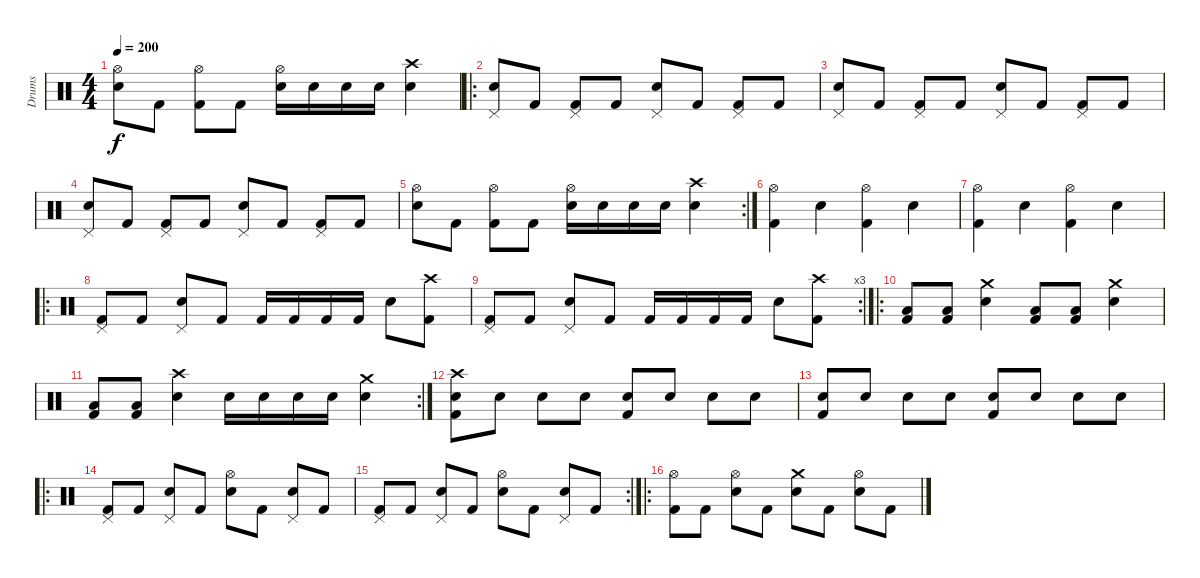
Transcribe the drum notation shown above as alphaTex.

\track ("Drums" "Drums") {instrument percussion}
\staff {score}
\articulation defaults
\ts (4 4)
\tempo 200
\clef neutral
\ks c
("Hi-Hat (open)" "Electric Snare (hit)").8{dy f} "Kick (hit) 2".8 ("Hi-Hat (open)" "Kick (hit) 2").8 "Kick (hit) 2".8 ("Hi-Hat (open)" "Electric Snare (hit)").16 "Electric Snare (hit)".16 "Electric Snare (hit)".16 "Electric Snare (hit)".16 ("Crash high (hit)" "Electric Snare (hit)").4 |
\ro
("Pedal Hi-Hat (hit)" "Electric Snare (hit)").8 "Kick (hit) 2".8 ("Pedal Hi-Hat (hit)" "Kick (hit) 2").8 "Kick (hit) 2".8 ("Pedal Hi-Hat (hit)" "Electric Snare (hit)").8 "Kick (hit) 2".8 ("Pedal Hi-Hat (hit)" "Kick (hit) 2").8 "Kick (hit) 2".8 |
("Pedal Hi-Hat (hit)" "Electric Snare (hit)").8 "Kick (hit) 2".8 ("Pedal Hi-Hat (hit)" "Kick (hit) 2").8 "Kick (hit) 2".8 ("Pedal Hi-Hat (hit)" "Electric Snare (hit)").8 "Kick (hit) 2".8 ("Pedal Hi-Hat (hit)" "Kick (hit) 2").8 "Kick (hit) 2".8 |
("Pedal Hi-Hat (hit)" "Electric Snare (hit)").8 "Kick (hit) 2".8 ("Pedal Hi-Hat (hit)" "Kick (hit) 2").8 "Kick (hit) 2".8 ("Pedal Hi-Hat (hit)" "Electric Snare (hit)").8 "Kick (hit) 2".8 ("Pedal Hi-Hat (hit)" "Kick (hit) 2").8 "Kick (hit) 2".8 |
\rc 2
("Hi-Hat (open)" "Electric Snare (hit)").8 "Kick (hit) 2".8 ("Hi-Hat (open)" "Kick (hit) 2").8 "Kick (hit) 2".8 ("Hi-Hat (open)" "Electric Snare (hit)").16 "Electric Snare (hit)".16 "Electric Snare (hit)".16 "Electric Snare (hit)".16 ("Crash high (hit)" "Electric Snare (hit)").4 |
("Hi-Hat (open)" "Kick (hit) 2").4 "Snare (hit) 2".4 ("Hi-Hat (open)" "Kick (hit) 2").4 "Snare (hit) 2".4 |
("Hi-Hat (open)" "Kick (hit) 2").4 "Snare (hit) 2".4 ("Hi-Hat (open)" "Kick (hit) 2").4 "Snare (hit) 2".4 |
\ro
("Pedal Hi-Hat (hit)" "Kick (hit) 2").8 "Kick (hit) 2".8 ("Pedal Hi-Hat (hit)" "Electric Snare (hit)").8 "Kick (hit) 2".8 "Kick (hit) 2".16 "Kick (hit) 2".16 "Kick (hit) 2".16 "Kick (hit) 2".16 "Electric Snare (hit)".8 ("Crash high (hit)" "Kick (hit) 2").8 |
\rc 3
("Pedal Hi-Hat (hit)" "Kick (hit) 2").8 "Kick (hit) 2".8 ("Pedal Hi-Hat (hit)" "Electric Snare (hit)").8 "Kick (hit) 2".8 "Kick (hit) 2".16 "Kick (hit) 2".16 "Kick (hit) 2".16 "Kick (hit) 2".16 "Electric Snare (hit)".8 ("Crash high (hit)" "Kick (hit) 2").8 |
\ro
("Low Tom (hit)" "Kick (hit) 2").8 ("Low Tom (hit)" "Kick (hit) 2").8 ("Crash medium (hit)" "Electric Snare (hit)").4 ("Low Tom (hit)" "Kick (hit) 2").8 ("Low Tom (hit)" "Kick (hit) 2").8 ("Crash medium (hit)" "Electric Snare (hit)").4 |
\rc 2
("Low Tom (hit)" "Kick (hit) 2").8 ("Low Tom (hit)" "Kick (hit) 2").8 ("Crash high (hit)" "Electric Snare (hit)").4 "Electric Snare (hit)".16 "Electric Snare (hit)".16 "Electric Snare (hit)".16 "Electric Snare (hit)".16 ("Crash medium (hit)" "Electric Snare (hit)").4 |
("Crash high (hit)" "Electric Snare (hit)" "Kick (hit) 2").8 "Electric Snare (hit)".8 "Electric Snare (hit)".8 "Electric Snare (hit)".8 ("Electric Snare (hit)" "Kick (hit) 2").8 "Electric Snare (hit)".8 "Electric Snare (hit)".8 "Electric Snare (hit)".8 |
("Electric Snare (hit)" "Kick (hit) 2").8 "Electric Snare (hit)".8 "Electric Snare (hit)".8 "Electric Snare (hit)".8 ("Electric Snare (hit)" "Kick (hit) 2").8 "Electric Snare (hit)".8 "Electric Snare (hit)".8 "Electric Snare (hit)".8 |
\ro
("Pedal Hi-Hat (hit)" "Kick (hit) 2").8 "Kick (hit) 2".8 ("Pedal Hi-Hat (hit)" "Snare (hit) 2").8 "Kick (hit) 2".8 ("Hi-Hat (open)" "Snare (hit) 2").8 "Kick (hit) 2".8 ("Pedal Hi-Hat (hit)" "Snare (hit) 2").8 "Kick (hit) 2".8 |
\rc 2
("Pedal Hi-Hat (hit)" "Kick (hit) 2").8 "Kick (hit) 2".8 ("Pedal Hi-Hat (hit)" "Snare (hit) 2").8 "Kick (hit) 2".8 ("Hi-Hat (open)" "Snare (hit) 2").8 "Kick (hit) 2".8 ("Pedal Hi-Hat (hit)" "Snare (hit) 2").8 "Kick (hit) 2".8 |
\ro
("Hi-Hat (open)" "Kick (hit) 2").8 "Kick (hit) 2".8 ("Hi-Hat (open)" "Snare (hit) 2").8 "Kick (hit) 2".8 ("Crash medium (hit)" "Snare (hit) 2").8 "Kick (hit) 2".8 ("Hi-Hat (open)" "Snare (hit) 2").8 "Kick (hit) 2".8
